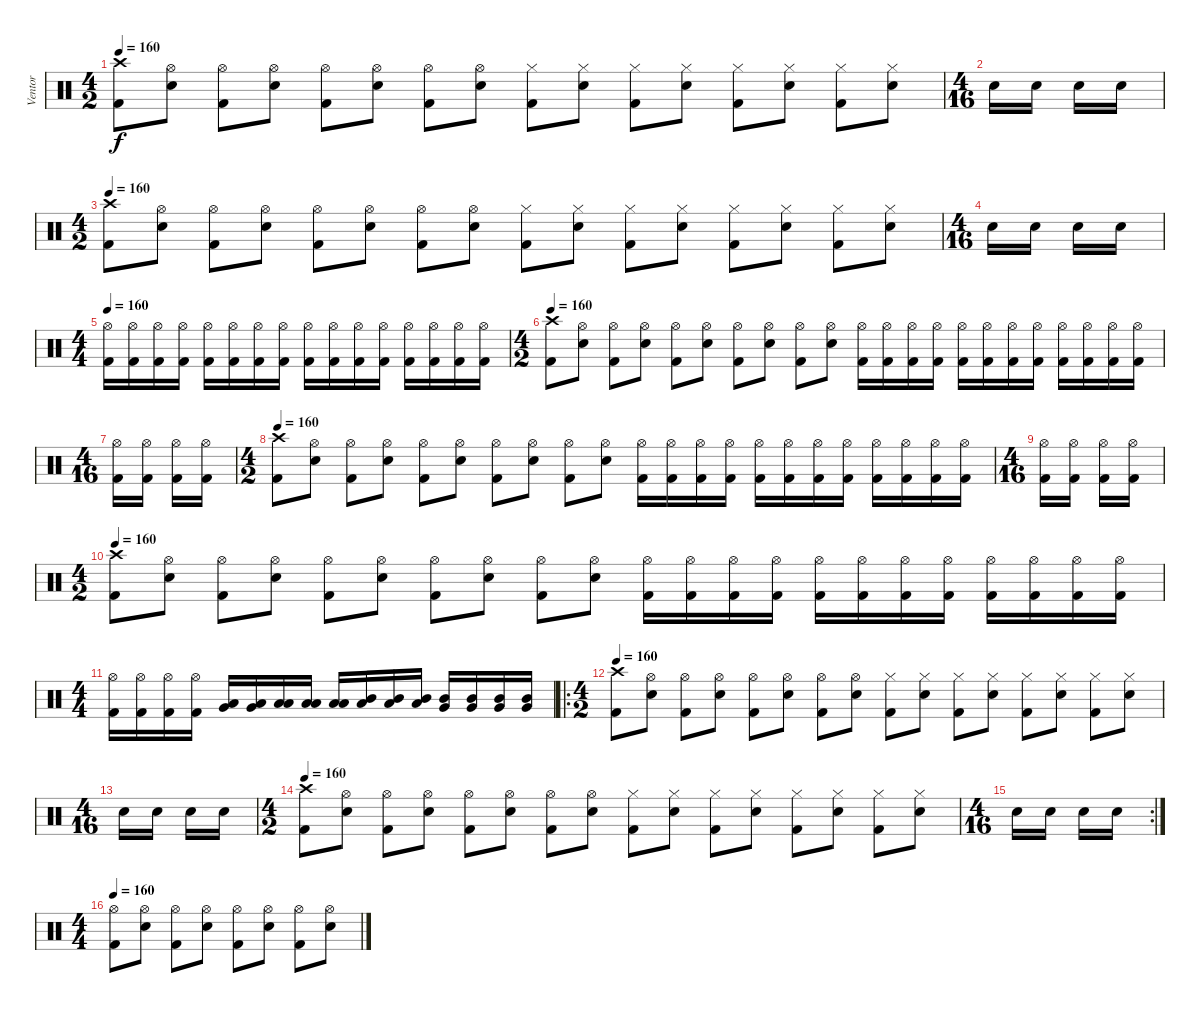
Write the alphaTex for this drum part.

\track ("Ventor" "Ventor") {instrument percussion}
\staff {score}
\articulation defaults
\ts (4 2)
\tempo 160
\clef neutral
\ks c
("Kick (hit) 2" "Crash high (hit)").8{dy f} ("Snare (hit) 2" "Hi-Hat (open)").8 ("Kick (hit) 2" "Hi-Hat (open)").8 ("Snare (hit) 2" "Hi-Hat (open)").8 ("Kick (hit) 2" "Hi-Hat (open)").8 ("Snare (hit) 2" "Hi-Hat (open)").8 ("Kick (hit) 2" "Hi-Hat (open)").8 ("Snare (hit) 2" "Hi-Hat (open)").8 ("Kick (hit) 2" "Hi-Hat (closed)").8 ("Snare (hit) 2" "Hi-Hat (closed)").8 ("Kick (hit) 2" "Hi-Hat (closed)").8 ("Snare (hit) 2" "Hi-Hat (closed)").8 ("Kick (hit) 2" "Hi-Hat (closed)").8 ("Snare (hit) 2" "Hi-Hat (closed)").8 ("Kick (hit) 2" "Hi-Hat (closed)").8 ("Snare (hit) 2" "Hi-Hat (closed)").8 |
\ts (4 16)
"Snare (hit) 2".16 "Snare (hit) 2".16 "Snare (hit) 2".16 "Snare (hit) 2".16 |
\ts (4 2)
\tempo 150
\tempo 160
("Kick (hit) 2" "Crash high (hit)").8 ("Snare (hit) 2" "Hi-Hat (open)").8 ("Kick (hit) 2" "Hi-Hat (open)").8 ("Snare (hit) 2" "Hi-Hat (open)").8 ("Kick (hit) 2" "Hi-Hat (open)").8 ("Snare (hit) 2" "Hi-Hat (open)").8 ("Kick (hit) 2" "Hi-Hat (open)").8 ("Snare (hit) 2" "Hi-Hat (open)").8 ("Kick (hit) 2" "Hi-Hat (closed)").8 ("Snare (hit) 2" "Hi-Hat (closed)").8 ("Kick (hit) 2" "Hi-Hat (closed)").8 ("Snare (hit) 2" "Hi-Hat (closed)").8 ("Kick (hit) 2" "Hi-Hat (closed)").8 ("Snare (hit) 2" "Hi-Hat (closed)").8 ("Kick (hit) 2" "Hi-Hat (closed)").8 ("Snare (hit) 2" "Hi-Hat (closed)").8 |
\ts (4 16)
"Snare (hit) 2".16 "Snare (hit) 2".16 "Snare (hit) 2".16 "Snare (hit) 2".16 |
\ts (4 4)
\tempo 160
("Kick (hit) 2" "Hi-Hat (open)").16 ("Kick (hit) 2" "Hi-Hat (open)").16 ("Kick (hit) 2" "Hi-Hat (open)").16 ("Kick (hit) 2" "Hi-Hat (open)").16 ("Kick (hit) 2" "Hi-Hat (open)").16 ("Kick (hit) 2" "Hi-Hat (open)").16 ("Kick (hit) 2" "Hi-Hat (open)").16 ("Kick (hit) 2" "Hi-Hat (open)").16 ("Kick (hit) 2" "Hi-Hat (open)").16 ("Kick (hit) 2" "Hi-Hat (open)").16 ("Kick (hit) 2" "Hi-Hat (open)").16 ("Kick (hit) 2" "Hi-Hat (open)").16 ("Kick (hit) 2" "Hi-Hat (open)").16 ("Kick (hit) 2" "Hi-Hat (open)").16 ("Kick (hit) 2" "Hi-Hat (open)").16 ("Kick (hit) 2" "Hi-Hat (open)").16 |
\ts (4 2)
\tempo 160
("Kick (hit) 2" "Crash high (hit)").8 ("Snare (hit) 2" "Hi-Hat (open)").8 ("Kick (hit) 2" "Hi-Hat (open)").8 ("Snare (hit) 2" "Hi-Hat (open)").8 ("Kick (hit) 2" "Hi-Hat (open)").8 ("Snare (hit) 2" "Hi-Hat (open)").8 ("Kick (hit) 2" "Hi-Hat (open)").8 ("Snare (hit) 2" "Hi-Hat (open)").8 ("Kick (hit) 2" "Hi-Hat (open)").8 ("Snare (hit) 2" "Hi-Hat (open)").8 ("Kick (hit) 2" "Hi-Hat (open)").16 ("Kick (hit) 2" "Hi-Hat (open)").16 ("Kick (hit) 2" "Hi-Hat (open)").16 ("Kick (hit) 2" "Hi-Hat (open)").16 ("Kick (hit) 2" "Hi-Hat (open)").16 ("Kick (hit) 2" "Hi-Hat (open)").16 ("Kick (hit) 2" "Hi-Hat (open)").16 ("Kick (hit) 2" "Hi-Hat (open)").16 ("Kick (hit) 2" "Hi-Hat (open)").16 ("Kick (hit) 2" "Hi-Hat (open)").16 ("Kick (hit) 2" "Hi-Hat (open)").16 ("Kick (hit) 2" "Hi-Hat (open)").16 |
\ts (4 16)
("Kick (hit) 2" "Hi-Hat (open)").16 ("Kick (hit) 2" "Hi-Hat (open)").16 ("Kick (hit) 2" "Hi-Hat (open)").16 ("Kick (hit) 2" "Hi-Hat (open)").16 |
\ts (4 2)
\tempo 160
("Kick (hit) 2" "Crash high (hit)").8 ("Snare (hit) 2" "Hi-Hat (open)").8 ("Kick (hit) 2" "Hi-Hat (open)").8 ("Snare (hit) 2" "Hi-Hat (open)").8 ("Kick (hit) 2" "Hi-Hat (open)").8 ("Snare (hit) 2" "Hi-Hat (open)").8 ("Kick (hit) 2" "Hi-Hat (open)").8 ("Snare (hit) 2" "Hi-Hat (open)").8 ("Kick (hit) 2" "Hi-Hat (open)").8 ("Snare (hit) 2" "Hi-Hat (open)").8 ("Kick (hit) 2" "Hi-Hat (open)").16 ("Kick (hit) 2" "Hi-Hat (open)").16 ("Kick (hit) 2" "Hi-Hat (open)").16 ("Kick (hit) 2" "Hi-Hat (open)").16 ("Kick (hit) 2" "Hi-Hat (open)").16 ("Kick (hit) 2" "Hi-Hat (open)").16 ("Kick (hit) 2" "Hi-Hat (open)").16 ("Kick (hit) 2" "Hi-Hat (open)").16 ("Kick (hit) 2" "Hi-Hat (open)").16 ("Kick (hit) 2" "Hi-Hat (open)").16 ("Kick (hit) 2" "Hi-Hat (open)").16 ("Kick (hit) 2" "Hi-Hat (open)").16 |
\ts (4 16)
("Kick (hit) 2" "Hi-Hat (open)").16 ("Kick (hit) 2" "Hi-Hat (open)").16 ("Kick (hit) 2" "Hi-Hat (open)").16 ("Kick (hit) 2" "Hi-Hat (open)").16 |
\ts (4 2)
\tempo 160
("Kick (hit) 2" "Crash high (hit)").8 ("Snare (hit) 2" "Hi-Hat (open)").8 ("Kick (hit) 2" "Hi-Hat (open)").8 ("Snare (hit) 2" "Hi-Hat (open)").8 ("Kick (hit) 2" "Hi-Hat (open)").8 ("Snare (hit) 2" "Hi-Hat (open)").8 ("Kick (hit) 2" "Hi-Hat (open)").8 ("Snare (hit) 2" "Hi-Hat (open)").8 ("Kick (hit) 2" "Hi-Hat (open)").8 ("Snare (hit) 2" "Hi-Hat (open)").8 ("Kick (hit) 2" "Hi-Hat (open)").16 ("Kick (hit) 2" "Hi-Hat (open)").16 ("Kick (hit) 2" "Hi-Hat (open)").16 ("Kick (hit) 2" "Hi-Hat (open)").16 ("Kick (hit) 2" "Hi-Hat (open)").16 ("Kick (hit) 2" "Hi-Hat (open)").16 ("Kick (hit) 2" "Hi-Hat (open)").16 ("Kick (hit) 2" "Hi-Hat (open)").16 ("Kick (hit) 2" "Hi-Hat (open)").16 ("Kick (hit) 2" "Hi-Hat (open)").16 ("Kick (hit) 2" "Hi-Hat (open)").16 ("Kick (hit) 2" "Hi-Hat (open)").16 |
\ts (4 4)
("Kick (hit) 2" "Hi-Hat (open)").16 ("Kick (hit) 2" "Hi-Hat (open)").16 ("Kick (hit) 2" "Hi-Hat (open)").16 ("Kick (hit) 2" "Hi-Hat (open)").16 ("Very Low Tom (hit)" "Low Floor Tom (hit)").16 ("Very Low Tom (hit)" "Low Floor Tom (hit)").16 ("Low Tom (hit)" "Low Floor Tom (hit)").16 ("Low Tom (hit)" "Low Floor Tom (hit)").16 ("Low Tom (hit)" "Low Floor Tom (hit)").16 ("Mid Tom (hit)" "Low Floor Tom (hit)").16 ("Mid Tom (hit)" "Low Floor Tom (hit)").16 ("Mid Tom (hit)" "Low Floor Tom (hit)").16 ("Mid Tom (hit)" "Very Low Tom (hit)").16 ("Mid Tom (hit)" "Very Low Tom (hit)").16 ("Mid Tom (hit)" "Very Low Tom (hit)").16 ("Mid Tom (hit)" "Very Low Tom (hit)").16 |
\ro
\ts (4 2)
\tempo 160
("Kick (hit) 2" "Crash high (hit)").8 ("Snare (hit) 2" "Hi-Hat (open)").8 ("Kick (hit) 2" "Hi-Hat (open)").8 ("Snare (hit) 2" "Hi-Hat (open)").8 ("Kick (hit) 2" "Hi-Hat (open)").8 ("Snare (hit) 2" "Hi-Hat (open)").8 ("Kick (hit) 2" "Hi-Hat (open)").8 ("Snare (hit) 2" "Hi-Hat (open)").8 ("Kick (hit) 2" "Hi-Hat (closed)").8 ("Snare (hit) 2" "Hi-Hat (closed)").8 ("Kick (hit) 2" "Hi-Hat (closed)").8 ("Snare (hit) 2" "Hi-Hat (closed)").8 ("Kick (hit) 2" "Hi-Hat (closed)").8 ("Snare (hit) 2" "Hi-Hat (closed)").8 ("Kick (hit) 2" "Hi-Hat (closed)").8 ("Snare (hit) 2" "Hi-Hat (closed)").8 |
\ts (4 16)
"Snare (hit) 2".16 "Snare (hit) 2".16 "Snare (hit) 2".16 "Snare (hit) 2".16 |
\ts (4 2)
\tempo 150
\tempo 160
("Kick (hit) 2" "Crash high (hit)").8 ("Snare (hit) 2" "Hi-Hat (open)").8 ("Kick (hit) 2" "Hi-Hat (open)").8 ("Snare (hit) 2" "Hi-Hat (open)").8 ("Kick (hit) 2" "Hi-Hat (open)").8 ("Snare (hit) 2" "Hi-Hat (open)").8 ("Kick (hit) 2" "Hi-Hat (open)").8 ("Snare (hit) 2" "Hi-Hat (open)").8 ("Kick (hit) 2" "Hi-Hat (closed)").8 ("Snare (hit) 2" "Hi-Hat (closed)").8 ("Kick (hit) 2" "Hi-Hat (closed)").8 ("Snare (hit) 2" "Hi-Hat (closed)").8 ("Kick (hit) 2" "Hi-Hat (closed)").8 ("Snare (hit) 2" "Hi-Hat (closed)").8 ("Kick (hit) 2" "Hi-Hat (closed)").8 ("Snare (hit) 2" "Hi-Hat (closed)").8 |
\rc 2
\ts (4 16)
"Snare (hit) 2".16 "Snare (hit) 2".16 "Snare (hit) 2".16 "Snare (hit) 2".16 |
\ts (4 4)
\tempo 160
("Kick (hit) 2" "Hi-Hat (open)").8 ("Snare (hit) 2" "Hi-Hat (open)").8 ("Kick (hit) 2" "Hi-Hat (open)").8 ("Snare (hit) 2" "Hi-Hat (open)").8 ("Kick (hit) 2" "Hi-Hat (open)").8 ("Snare (hit) 2" "Hi-Hat (open)").8 ("Kick (hit) 2" "Hi-Hat (open)").8 ("Snare (hit) 2" "Hi-Hat (open)").8
